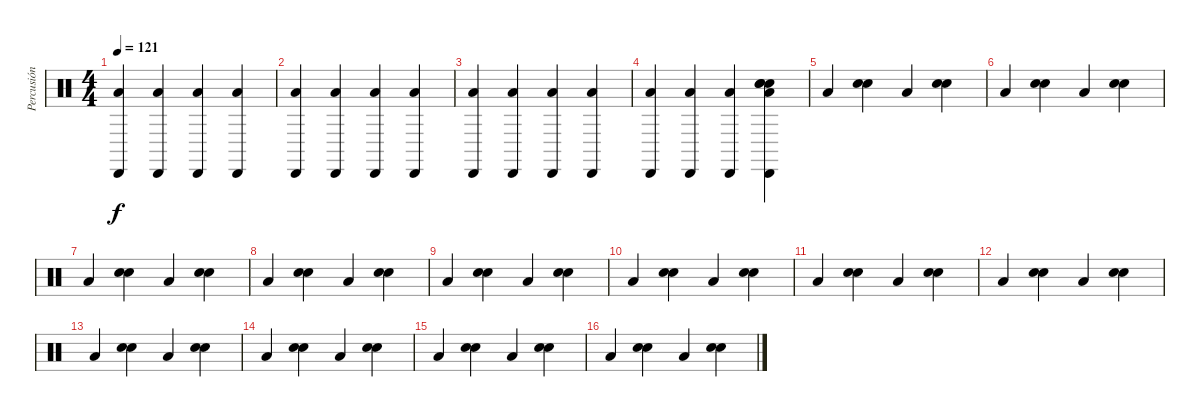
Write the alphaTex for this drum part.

\track ("Percusión" "Percusión") {instrument percussion}
\staff {score}
\articulation defaults
\ts (4 4)
\tempo 121
\clef neutral
\ks c
("Low Tom (hit)" "Cabasa (hit)").4{dy f} ("Low Tom (hit)" "Cabasa (hit)").4 ("Low Tom (hit)" "Cabasa (hit)").4 ("Low Tom (hit)" "Cabasa (hit)").4 |
("Low Tom (hit)" "Cabasa (hit)").4 ("Low Tom (hit)" "Cabasa (hit)").4 ("Low Tom (hit)" "Cabasa (hit)").4 ("Low Tom (hit)" "Cabasa (hit)").4 |
("Low Tom (hit)" "Cabasa (hit)").4 ("Low Tom (hit)" "Cabasa (hit)").4 ("Low Tom (hit)" "Cabasa (hit)").4 ("Low Tom (hit)" "Cabasa (hit)").4 |
("Low Tom (hit)" "Cabasa (hit)").4 ("Low Tom (hit)" "Cabasa (hit)").4 ("Low Tom (hit)" "Cabasa (hit)").4 ("Low Tom (hit)" "Cabasa (hit)" "Electric Snare (hit)" "Electric Snare (hit)" "Electric Snare (hit)").4 |
"Low Tom (hit)".4 ("Snare (hit) 2" "Snare (hit) 2").4 "Low Tom (hit)".4 ("Snare (hit) 2" "Snare (hit) 2").4 |
"Low Tom (hit)".4 ("Snare (hit) 2" "Snare (hit) 2").4 "Low Tom (hit)".4 ("Snare (hit) 2" "Snare (hit) 2").4 |
"Low Tom (hit)".4 ("Snare (hit) 2" "Snare (hit) 2").4 "Low Tom (hit)".4 ("Snare (hit) 2" "Snare (hit) 2").4 |
"Low Tom (hit)".4 ("Snare (hit) 2" "Snare (hit) 2").4 "Low Tom (hit)".4 ("Snare (hit) 2" "Snare (hit) 2").4 |
"Low Tom (hit)".4 ("Snare (hit) 2" "Snare (hit) 2").4 "Low Tom (hit)".4 ("Snare (hit) 2" "Snare (hit) 2").4 |
"Low Tom (hit)".4 ("Snare (hit) 2" "Snare (hit) 2").4 "Low Tom (hit)".4 ("Snare (hit) 2" "Snare (hit) 2").4 |
"Low Tom (hit)".4 ("Snare (hit) 2" "Snare (hit) 2").4 "Low Tom (hit)".4 ("Snare (hit) 2" "Snare (hit) 2").4 |
"Low Tom (hit)".4 ("Snare (hit) 2" "Snare (hit) 2").4 "Low Tom (hit)".4 ("Snare (hit) 2" "Snare (hit) 2").4 |
"Low Tom (hit)".4 ("Snare (hit) 2" "Snare (hit) 2").4 "Low Tom (hit)".4 ("Snare (hit) 2" "Snare (hit) 2").4 |
"Low Tom (hit)".4 ("Snare (hit) 2" "Snare (hit) 2").4 "Low Tom (hit)".4 ("Snare (hit) 2" "Snare (hit) 2").4 |
"Low Tom (hit)".4 ("Snare (hit) 2" "Snare (hit) 2").4 "Low Tom (hit)".4 ("Snare (hit) 2" "Snare (hit) 2").4 |
"Low Tom (hit)".4 ("Snare (hit) 2" "Snare (hit) 2").4 "Low Tom (hit)".4 ("Snare (hit) 2" "Snare (hit) 2").4
